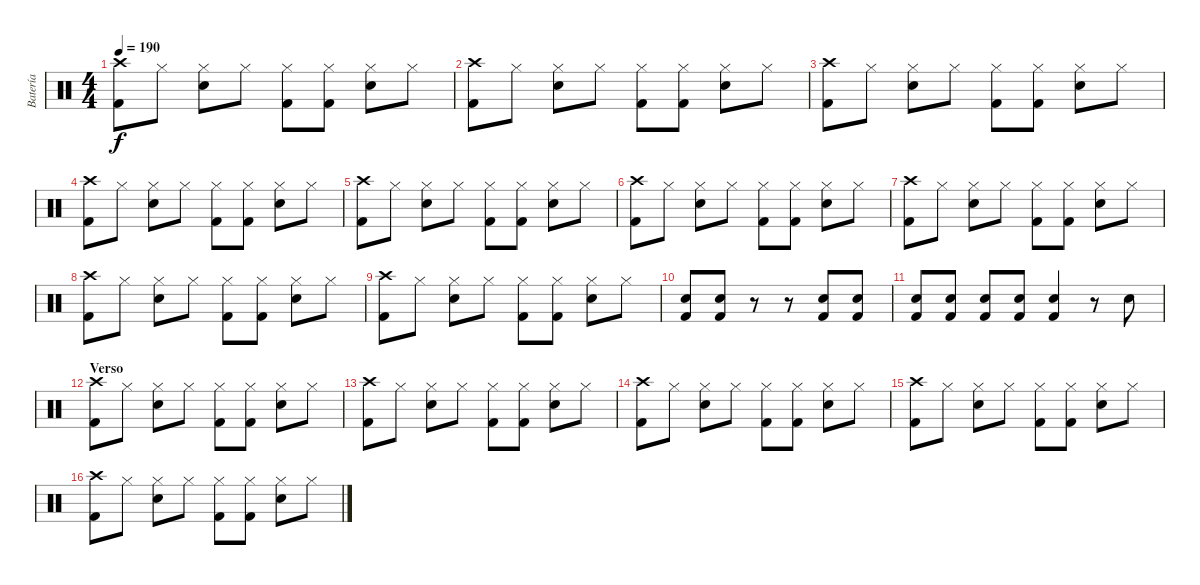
\track ("Batería" "Batería") {instrument percussion}
\staff {score}
\articulation defaults
\ts (4 4)
\tempo 190
\clef neutral
\ks c
("Crash high (hit)" "Kick (hit) 2").8{dy f} "Hi-Hat (closed)".8 ("Hi-Hat (closed)" "Snare (hit) 2").8 "Hi-Hat (closed)".8 ("Hi-Hat (closed)" "Kick (hit) 2").8 ("Hi-Hat (closed)" "Kick (hit) 2").8 ("Hi-Hat (closed)" "Snare (hit) 2").8 "Hi-Hat (closed)".8 |
("Crash high (hit)" "Kick (hit) 2").8 "Hi-Hat (closed)".8 ("Hi-Hat (closed)" "Snare (hit) 2").8 "Hi-Hat (closed)".8 ("Hi-Hat (closed)" "Kick (hit) 2").8 ("Hi-Hat (closed)" "Kick (hit) 2").8 ("Hi-Hat (closed)" "Snare (hit) 2").8 "Hi-Hat (closed)".8 |
("Crash high (hit)" "Kick (hit) 2").8 "Hi-Hat (closed)".8 ("Hi-Hat (closed)" "Snare (hit) 2").8 "Hi-Hat (closed)".8 ("Hi-Hat (closed)" "Kick (hit) 2").8 ("Hi-Hat (closed)" "Kick (hit) 2").8 ("Hi-Hat (closed)" "Snare (hit) 2").8 "Hi-Hat (closed)".8 |
("Crash high (hit)" "Kick (hit) 2").8 "Hi-Hat (closed)".8 ("Hi-Hat (closed)" "Snare (hit) 2").8 "Hi-Hat (closed)".8 ("Hi-Hat (closed)" "Kick (hit) 2").8 ("Hi-Hat (closed)" "Kick (hit) 2").8 ("Hi-Hat (closed)" "Snare (hit) 2").8 "Hi-Hat (closed)".8 |
("Crash high (hit)" "Kick (hit) 2").8 "Hi-Hat (closed)".8 ("Hi-Hat (closed)" "Snare (hit) 2").8 "Hi-Hat (closed)".8 ("Hi-Hat (closed)" "Kick (hit) 2").8 ("Hi-Hat (closed)" "Kick (hit) 2").8 ("Hi-Hat (closed)" "Snare (hit) 2").8 "Hi-Hat (closed)".8 |
("Crash high (hit)" "Kick (hit) 2").8 "Hi-Hat (closed)".8 ("Hi-Hat (closed)" "Snare (hit) 2").8 "Hi-Hat (closed)".8 ("Hi-Hat (closed)" "Kick (hit) 2").8 ("Hi-Hat (closed)" "Kick (hit) 2").8 ("Hi-Hat (closed)" "Snare (hit) 2").8 "Hi-Hat (closed)".8 |
("Crash high (hit)" "Kick (hit) 2").8 "Hi-Hat (closed)".8 ("Hi-Hat (closed)" "Snare (hit) 2").8 "Hi-Hat (closed)".8 ("Hi-Hat (closed)" "Kick (hit) 2").8 ("Hi-Hat (closed)" "Kick (hit) 2").8 ("Hi-Hat (closed)" "Snare (hit) 2").8 "Hi-Hat (closed)".8 |
("Crash high (hit)" "Kick (hit) 2").8 "Hi-Hat (closed)".8 ("Hi-Hat (closed)" "Snare (hit) 2").8 "Hi-Hat (closed)".8 ("Hi-Hat (closed)" "Kick (hit) 2").8 ("Hi-Hat (closed)" "Kick (hit) 2").8 ("Hi-Hat (closed)" "Snare (hit) 2").8 "Hi-Hat (closed)".8 |
("Crash high (hit)" "Kick (hit) 2").8 "Hi-Hat (closed)".8 ("Hi-Hat (closed)" "Snare (hit) 2").8 "Hi-Hat (closed)".8 ("Hi-Hat (closed)" "Kick (hit) 2").8 ("Hi-Hat (closed)" "Kick (hit) 2").8 ("Hi-Hat (closed)" "Snare (hit) 2").8 "Hi-Hat (closed)".8 |
("Snare (hit) 2" "Kick (hit) 2").8 ("Snare (hit) 2" "Kick (hit) 2").8 r.8 r.8 ("Snare (hit) 2" "Kick (hit) 2").8 ("Snare (hit) 2" "Kick (hit) 2").8 |
("Snare (hit) 2" "Kick (hit) 2").8 ("Snare (hit) 2" "Kick (hit) 2").8 ("Snare (hit) 2" "Kick (hit) 2").8 ("Snare (hit) 2" "Kick (hit) 2").8 ("Snare (hit) 2" "Kick (hit) 2").4 r.8 "Snare (hit) 2".8 |
\section ("" "Verso")
("Crash high (hit)" "Kick (hit) 2").8 "Hi-Hat (closed)".8 ("Hi-Hat (closed)" "Snare (hit) 2").8 "Hi-Hat (closed)".8 ("Hi-Hat (closed)" "Kick (hit) 2").8 ("Hi-Hat (closed)" "Kick (hit) 2").8 ("Hi-Hat (closed)" "Snare (hit) 2").8 "Hi-Hat (closed)".8 |
("Crash high (hit)" "Kick (hit) 2").8 "Hi-Hat (closed)".8 ("Hi-Hat (closed)" "Snare (hit) 2").8 "Hi-Hat (closed)".8 ("Hi-Hat (closed)" "Kick (hit) 2").8 ("Hi-Hat (closed)" "Kick (hit) 2").8 ("Hi-Hat (closed)" "Snare (hit) 2").8 "Hi-Hat (closed)".8 |
("Crash high (hit)" "Kick (hit) 2").8 "Hi-Hat (closed)".8 ("Hi-Hat (closed)" "Snare (hit) 2").8 "Hi-Hat (closed)".8 ("Hi-Hat (closed)" "Kick (hit) 2").8 ("Hi-Hat (closed)" "Kick (hit) 2").8 ("Hi-Hat (closed)" "Snare (hit) 2").8 "Hi-Hat (closed)".8 |
("Crash high (hit)" "Kick (hit) 2").8 "Hi-Hat (closed)".8 ("Hi-Hat (closed)" "Snare (hit) 2").8 "Hi-Hat (closed)".8 ("Hi-Hat (closed)" "Kick (hit) 2").8 ("Hi-Hat (closed)" "Kick (hit) 2").8 ("Hi-Hat (closed)" "Snare (hit) 2").8 "Hi-Hat (closed)".8 |
("Crash high (hit)" "Kick (hit) 2").8 "Hi-Hat (closed)".8 ("Hi-Hat (closed)" "Snare (hit) 2").8 "Hi-Hat (closed)".8 ("Hi-Hat (closed)" "Kick (hit) 2").8 ("Hi-Hat (closed)" "Kick (hit) 2").8 ("Hi-Hat (closed)" "Snare (hit) 2").8 "Hi-Hat (closed)".8
